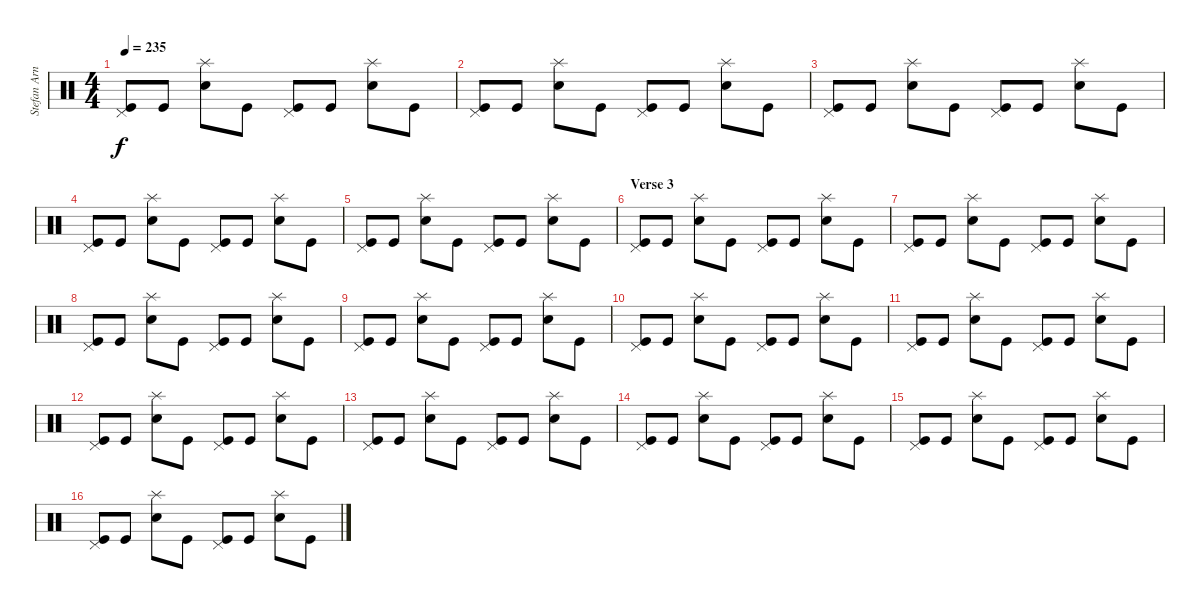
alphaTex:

\track ("Stefan Arnold" "Stefan Arn") {instrument percussion}
\staff {score}
\articulation defaults
\ts (4 4)
\tempo 235
\clef neutral
\ks c
("Kick (hit)" "Pedal Hi-Hat (hit)").8{dy f} "Kick (hit)".8 ("Electric Snare (hit)" "Splash (hit)").8 "Kick (hit)".8 ("Kick (hit)" "Pedal Hi-Hat (hit)").8 "Kick (hit)".8 ("Electric Snare (hit)" "Splash (hit)").8 "Kick (hit)".8 |
("Kick (hit)" "Pedal Hi-Hat (hit)").8 "Kick (hit)".8 ("Electric Snare (hit)" "Splash (hit)").8 "Kick (hit)".8 ("Kick (hit)" "Pedal Hi-Hat (hit)").8 "Kick (hit)".8 ("Electric Snare (hit)" "Splash (hit)").8 "Kick (hit)".8 |
("Kick (hit)" "Pedal Hi-Hat (hit)").8 "Kick (hit)".8 ("Electric Snare (hit)" "Splash (hit)").8 "Kick (hit)".8 ("Kick (hit)" "Pedal Hi-Hat (hit)").8 "Kick (hit)".8 ("Electric Snare (hit)" "Splash (hit)").8 "Kick (hit)".8 |
("Kick (hit)" "Pedal Hi-Hat (hit)").8 "Kick (hit)".8 ("Electric Snare (hit)" "Splash (hit)").8 "Kick (hit)".8 ("Kick (hit)" "Pedal Hi-Hat (hit)").8 "Kick (hit)".8 ("Electric Snare (hit)" "Splash (hit)").8 "Kick (hit)".8 |
("Kick (hit)" "Pedal Hi-Hat (hit)").8 "Kick (hit)".8 ("Electric Snare (hit)" "Splash (hit)").8 "Kick (hit)".8 ("Kick (hit)" "Pedal Hi-Hat (hit)").8 "Kick (hit)".8 ("Electric Snare (hit)" "Splash (hit)").8 "Kick (hit)".8 |
\section ("" "Verse 3")
("Kick (hit)" "Pedal Hi-Hat (hit)").8 "Kick (hit)".8 ("Electric Snare (hit)" "Splash (hit)").8 "Kick (hit)".8 ("Kick (hit)" "Pedal Hi-Hat (hit)").8 "Kick (hit)".8 ("Electric Snare (hit)" "Splash (hit)").8 "Kick (hit)".8 |
("Kick (hit)" "Pedal Hi-Hat (hit)").8 "Kick (hit)".8 ("Electric Snare (hit)" "Splash (hit)").8 "Kick (hit)".8 ("Kick (hit)" "Pedal Hi-Hat (hit)").8 "Kick (hit)".8 ("Electric Snare (hit)" "Splash (hit)").8 "Kick (hit)".8 |
("Kick (hit)" "Pedal Hi-Hat (hit)").8 "Kick (hit)".8 ("Electric Snare (hit)" "Splash (hit)").8 "Kick (hit)".8 ("Kick (hit)" "Pedal Hi-Hat (hit)").8 "Kick (hit)".8 ("Electric Snare (hit)" "Splash (hit)").8 "Kick (hit)".8 |
("Kick (hit)" "Pedal Hi-Hat (hit)").8 "Kick (hit)".8 ("Electric Snare (hit)" "Splash (hit)").8 "Kick (hit)".8 ("Kick (hit)" "Pedal Hi-Hat (hit)").8 "Kick (hit)".8 ("Electric Snare (hit)" "Splash (hit)").8 "Kick (hit)".8 |
("Kick (hit)" "Pedal Hi-Hat (hit)").8 "Kick (hit)".8 ("Electric Snare (hit)" "Splash (hit)").8 "Kick (hit)".8 ("Kick (hit)" "Pedal Hi-Hat (hit)").8 "Kick (hit)".8 ("Electric Snare (hit)" "Splash (hit)").8 "Kick (hit)".8 |
("Kick (hit)" "Pedal Hi-Hat (hit)").8 "Kick (hit)".8 ("Electric Snare (hit)" "Splash (hit)").8 "Kick (hit)".8 ("Kick (hit)" "Pedal Hi-Hat (hit)").8 "Kick (hit)".8 ("Electric Snare (hit)" "Splash (hit)").8 "Kick (hit)".8 |
("Kick (hit)" "Pedal Hi-Hat (hit)").8 "Kick (hit)".8 ("Electric Snare (hit)" "Splash (hit)").8 "Kick (hit)".8 ("Kick (hit)" "Pedal Hi-Hat (hit)").8 "Kick (hit)".8 ("Electric Snare (hit)" "Splash (hit)").8 "Kick (hit)".8 |
("Kick (hit)" "Pedal Hi-Hat (hit)").8 "Kick (hit)".8 ("Electric Snare (hit)" "Splash (hit)").8 "Kick (hit)".8 ("Kick (hit)" "Pedal Hi-Hat (hit)").8 "Kick (hit)".8 ("Electric Snare (hit)" "Splash (hit)").8 "Kick (hit)".8 |
("Kick (hit)" "Pedal Hi-Hat (hit)").8 "Kick (hit)".8 ("Electric Snare (hit)" "Splash (hit)").8 "Kick (hit)".8 ("Kick (hit)" "Pedal Hi-Hat (hit)").8 "Kick (hit)".8 ("Electric Snare (hit)" "Splash (hit)").8 "Kick (hit)".8 |
("Kick (hit)" "Pedal Hi-Hat (hit)").8 "Kick (hit)".8 ("Electric Snare (hit)" "Splash (hit)").8 "Kick (hit)".8 ("Kick (hit)" "Pedal Hi-Hat (hit)").8 "Kick (hit)".8 ("Electric Snare (hit)" "Splash (hit)").8 "Kick (hit)".8 |
("Kick (hit)" "Pedal Hi-Hat (hit)").8 "Kick (hit)".8 ("Electric Snare (hit)" "Splash (hit)").8 "Kick (hit)".8 ("Kick (hit)" "Pedal Hi-Hat (hit)").8 "Kick (hit)".8 ("Electric Snare (hit)" "Splash (hit)").8 "Kick (hit)".8
